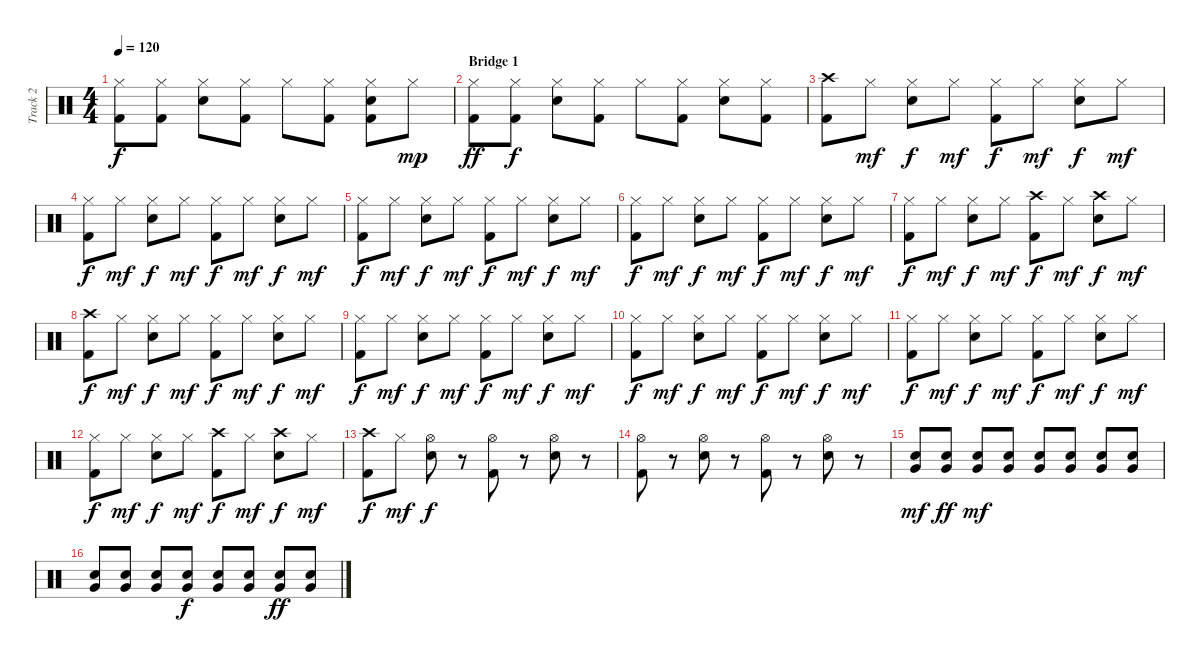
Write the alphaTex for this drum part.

\track ("Track 2" "Track 2") {instrument percussion}
\staff {score}
\articulation defaults
\ts (4 4)
\tempo 120
\clef neutral
\ks c
("Hi-Hat (closed)" "Kick (hit) 2").8{dy f} ("Hi-Hat (closed)" "Kick (hit) 2").8 ("Hi-Hat (closed)" "Electric Snare (hit)").8 ("Hi-Hat (closed)" "Kick (hit) 2").8 "Hi-Hat (closed)".8 ("Hi-Hat (closed)" "Kick (hit) 2").8 ("Hi-Hat (closed)" "Electric Snare (hit)" "Kick (hit) 2").8 "Hi-Hat (closed)".8{dy mp} |
\section ("" "Bridge 1")
("Hi-Hat (closed)" "Kick (hit) 2").8{dy ff} ("Hi-Hat (closed)" "Kick (hit) 2").8{dy f} ("Hi-Hat (closed)" "Electric Snare (hit)").8 ("Hi-Hat (closed)" "Kick (hit) 2").8 "Hi-Hat (closed)".8 ("Hi-Hat (closed)" "Kick (hit) 2").8 ("Hi-Hat (closed)" "Electric Snare (hit)").8 ("Hi-Hat (closed)" "Kick (hit) 2").8 |
("Crash high (hit)" "Kick (hit) 2").8 "Hi-Hat (closed)".8{dy mf} ("Hi-Hat (closed)" "Electric Snare (hit)").8{dy f} "Hi-Hat (closed)".8{dy mf} ("Hi-Hat (closed)" "Kick (hit) 2").8{dy f} "Hi-Hat (closed)".8{dy mf} ("Hi-Hat (closed)" "Electric Snare (hit)").8{dy f} "Hi-Hat (closed)".8{dy mf} |
("Hi-Hat (closed)" "Kick (hit) 2").8{dy f} "Hi-Hat (closed)".8{dy mf} ("Hi-Hat (closed)" "Electric Snare (hit)").8{dy f} "Hi-Hat (closed)".8{dy mf} ("Hi-Hat (closed)" "Kick (hit) 2").8{dy f} "Hi-Hat (closed)".8{dy mf} ("Hi-Hat (closed)" "Electric Snare (hit)").8{dy f} "Hi-Hat (closed)".8{dy mf} |
("Hi-Hat (closed)" "Kick (hit) 2").8{dy f} "Hi-Hat (closed)".8{dy mf} ("Hi-Hat (closed)" "Electric Snare (hit)").8{dy f} "Hi-Hat (closed)".8{dy mf} ("Hi-Hat (closed)" "Kick (hit) 2").8{dy f} "Hi-Hat (closed)".8{dy mf} ("Hi-Hat (closed)" "Electric Snare (hit)").8{dy f} "Hi-Hat (closed)".8{dy mf} |
("Hi-Hat (closed)" "Kick (hit) 2").8{dy f} "Hi-Hat (closed)".8{dy mf} ("Hi-Hat (closed)" "Electric Snare (hit)").8{dy f} "Hi-Hat (closed)".8{dy mf} ("Hi-Hat (closed)" "Kick (hit) 2").8{dy f} "Hi-Hat (closed)".8{dy mf} ("Hi-Hat (closed)" "Electric Snare (hit)").8{dy f} "Hi-Hat (closed)".8{dy mf} |
("Hi-Hat (closed)" "Kick (hit) 2").8{dy f} "Hi-Hat (closed)".8{dy mf} ("Hi-Hat (closed)" "Electric Snare (hit)").8{dy f} "Hi-Hat (closed)".8{dy mf} ("Crash high (hit)" "Kick (hit) 2").8{dy f} "Hi-Hat (closed)".8{dy mf} ("Crash high (hit)" "Electric Snare (hit)").8{dy f} "Hi-Hat (closed)".8{dy mf} |
("Crash high (hit)" "Kick (hit) 2").8{dy f} "Hi-Hat (closed)".8{dy mf} ("Hi-Hat (closed)" "Electric Snare (hit)").8{dy f} "Hi-Hat (closed)".8{dy mf} ("Hi-Hat (closed)" "Kick (hit) 2").8{dy f} "Hi-Hat (closed)".8{dy mf} ("Hi-Hat (closed)" "Electric Snare (hit)").8{dy f} "Hi-Hat (closed)".8{dy mf} |
("Hi-Hat (closed)" "Kick (hit) 2").8{dy f} "Hi-Hat (closed)".8{dy mf} ("Hi-Hat (closed)" "Electric Snare (hit)").8{dy f} "Hi-Hat (closed)".8{dy mf} ("Hi-Hat (closed)" "Kick (hit) 2").8{dy f} "Hi-Hat (closed)".8{dy mf} ("Hi-Hat (closed)" "Electric Snare (hit)").8{dy f} "Hi-Hat (closed)".8{dy mf} |
("Hi-Hat (closed)" "Kick (hit) 2").8{dy f} "Hi-Hat (closed)".8{dy mf} ("Hi-Hat (closed)" "Electric Snare (hit)").8{dy f} "Hi-Hat (closed)".8{dy mf} ("Hi-Hat (closed)" "Kick (hit) 2").8{dy f} "Hi-Hat (closed)".8{dy mf} ("Hi-Hat (closed)" "Electric Snare (hit)").8{dy f} "Hi-Hat (closed)".8{dy mf} |
("Hi-Hat (closed)" "Kick (hit) 2").8{dy f} "Hi-Hat (closed)".8{dy mf} ("Hi-Hat (closed)" "Electric Snare (hit)").8{dy f} "Hi-Hat (closed)".8{dy mf} ("Hi-Hat (closed)" "Kick (hit) 2").8{dy f} "Hi-Hat (closed)".8{dy mf} ("Hi-Hat (closed)" "Electric Snare (hit)").8{dy f} "Hi-Hat (closed)".8{dy mf} |
("Hi-Hat (closed)" "Kick (hit) 2").8{dy f} "Hi-Hat (closed)".8{dy mf} ("Hi-Hat (closed)" "Electric Snare (hit)").8{dy f} "Hi-Hat (closed)".8{dy mf} ("Crash high (hit)" "Kick (hit) 2").8{dy f} "Hi-Hat (closed)".8{dy mf} ("Crash high (hit)" "Electric Snare (hit)").8{dy f} "Hi-Hat (closed)".8{dy mf} |
("Crash high (hit)" "Kick (hit) 2").8{dy f} "Hi-Hat (closed)".8{dy mf} ("Hi-Hat (open)" "Electric Snare (hit)").8{dy f} r.8 ("Hi-Hat (open)" "Kick (hit) 2").8 r.8 ("Hi-Hat (open)" "Electric Snare (hit)").8 r.8 |
("Hi-Hat (open)" "Kick (hit) 2").8 r.8 ("Hi-Hat (open)" "Electric Snare (hit)").8 r.8 ("Hi-Hat (open)" "Kick (hit) 2").8 r.8 ("Hi-Hat (open)" "Electric Snare (hit)").8 r.8 |
("Electric Snare (hit)" "Very Low Tom (hit)").8{dy mf} ("Electric Snare (hit)" "Very Low Tom (hit)").8{dy ff} ("Electric Snare (hit)" "Very Low Tom (hit)").8{dy mf} ("Electric Snare (hit)" "Very Low Tom (hit)").8 ("Electric Snare (hit)" "Very Low Tom (hit)").8 ("Electric Snare (hit)" "Very Low Tom (hit)").8 ("Electric Snare (hit)" "Very Low Tom (hit)").8 ("Electric Snare (hit)" "Very Low Tom (hit)").8 |
("Electric Snare (hit)" "Very Low Tom (hit)").8 ("Electric Snare (hit)" "Very Low Tom (hit)").8 ("Electric Snare (hit)" "Very Low Tom (hit)").8 ("Electric Snare (hit)" "Very Low Tom (hit)").8{dy f} ("Electric Snare (hit)" "Very Low Tom (hit)").8 ("Electric Snare (hit)" "Very Low Tom (hit)").8 ("Electric Snare (hit)" "Very Low Tom (hit)").8{dy ff} ("Electric Snare (hit)" "Very Low Tom (hit)").8
